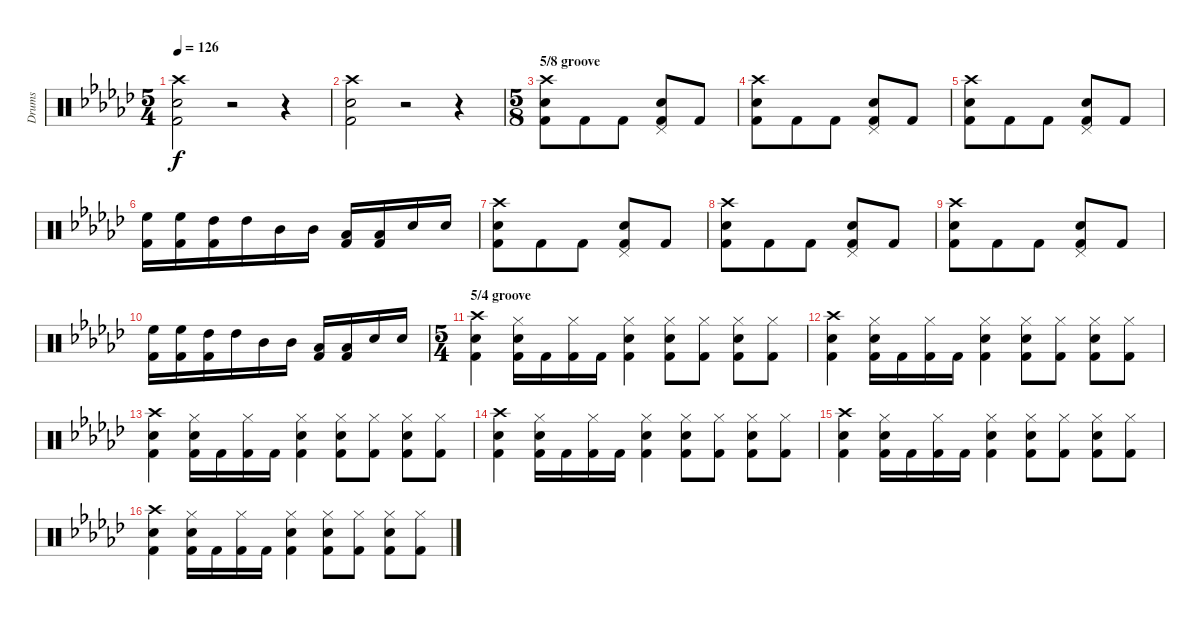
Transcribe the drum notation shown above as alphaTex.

\track ("Drums" "Drums") {instrument percussion}
\staff {score}
\articulation defaults
\ts (5 4)
\tempo 126
\clef neutral
\ks ebminor
("Crash high (hit)" "Electric Snare (hit)" "Kick (hit) 2").2{dy f} r.2 r.4 |
("Crash high (hit)" "Electric Snare (hit)" "Kick (hit) 2").2 r.2 r.4 |
\ts (5 8)
\section ("" "5/8 groove")
("Crash high (hit)" "Electric Snare (hit)" "Kick (hit) 2").8 "Kick (hit) 2".8 "Kick (hit) 2".8 ("Pedal Hi-Hat (hit)" "Electric Snare (hit)" "Kick (hit) 2").8 "Kick (hit) 2".8 |
("Crash high (hit)" "Electric Snare (hit)" "Kick (hit) 2").8 "Kick (hit) 2".8 "Kick (hit) 2".8 ("Pedal Hi-Hat (hit)" "Electric Snare (hit)" "Kick (hit) 2").8 "Kick (hit) 2".8 |
("Crash high (hit)" "Electric Snare (hit)" "Kick (hit) 2").8 "Kick (hit) 2".8 "Kick (hit) 2".8 ("Pedal Hi-Hat (hit)" "Electric Snare (hit)" "Kick (hit) 2").8 "Kick (hit) 2".8 |
("High Floor Tom (hit)" "Kick (hit) 2").16 ("High Floor Tom (hit)" "Kick (hit) 2").16 ("High Tom (hit)" "Kick (hit) 2").16 "High Tom (hit)".16 "Mid Tom (hit)".16 "Mid Tom (hit)".16 ("Low Tom (hit)" "Kick (hit) 2").16 ("Low Tom (hit)" "Kick (hit) 2").16 "Electric Snare (hit)".16 "Electric Snare (hit)".16 |
("Crash high (hit)" "Electric Snare (hit)" "Kick (hit) 2").8 "Kick (hit) 2".8 "Kick (hit) 2".8 ("Pedal Hi-Hat (hit)" "Electric Snare (hit)" "Kick (hit) 2").8 "Kick (hit) 2".8 |
("Crash high (hit)" "Electric Snare (hit)" "Kick (hit) 2").8 "Kick (hit) 2".8 "Kick (hit) 2".8 ("Pedal Hi-Hat (hit)" "Electric Snare (hit)" "Kick (hit) 2").8 "Kick (hit) 2".8 |
("Crash high (hit)" "Electric Snare (hit)" "Kick (hit) 2").8 "Kick (hit) 2".8 "Kick (hit) 2".8 ("Pedal Hi-Hat (hit)" "Electric Snare (hit)" "Kick (hit) 2").8 "Kick (hit) 2".8 |
("High Floor Tom (hit)" "Kick (hit) 2").16 ("High Floor Tom (hit)" "Kick (hit) 2").16 ("High Tom (hit)" "Kick (hit) 2").16 "High Tom (hit)".16 "Mid Tom (hit)".16 "Mid Tom (hit)".16 ("Low Tom (hit)" "Kick (hit) 2").16 ("Low Tom (hit)" "Kick (hit) 2").16 "Electric Snare (hit)".16 "Electric Snare (hit)".16 |
\ts (5 4)
\section ("" "5/4 groove")
("Crash high (hit)" "Electric Snare (hit)" "Kick (hit) 2").4 ("Hi-Hat (closed)" "Electric Snare (hit)" "Kick (hit) 2").16 "Kick (hit) 2".16 ("Hi-Hat (closed)" "Kick (hit) 2").16 "Kick (hit) 2".16 ("Hi-Hat (closed)" "Electric Snare (hit)" "Kick (hit) 2").4 ("Hi-Hat (closed)" "Electric Snare (hit)" "Kick (hit) 2").8 ("Hi-Hat (closed)" "Kick (hit) 2").8 ("Hi-Hat (closed)" "Electric Snare (hit)" "Kick (hit) 2").8 ("Hi-Hat (closed)" "Kick (hit) 2").8 |
("Crash high (hit)" "Electric Snare (hit)" "Kick (hit) 2").4 ("Hi-Hat (closed)" "Electric Snare (hit)" "Kick (hit) 2").16 "Kick (hit) 2".16 ("Hi-Hat (closed)" "Kick (hit) 2").16 "Kick (hit) 2".16 ("Hi-Hat (closed)" "Electric Snare (hit)" "Kick (hit) 2").4 ("Hi-Hat (closed)" "Electric Snare (hit)" "Kick (hit) 2").8 ("Hi-Hat (closed)" "Kick (hit) 2").8 ("Hi-Hat (closed)" "Electric Snare (hit)" "Kick (hit) 2").8 ("Hi-Hat (closed)" "Kick (hit) 2").8 |
("Crash high (hit)" "Electric Snare (hit)" "Kick (hit) 2").4 ("Hi-Hat (closed)" "Electric Snare (hit)" "Kick (hit) 2").16 "Kick (hit) 2".16 ("Hi-Hat (closed)" "Kick (hit) 2").16 "Kick (hit) 2".16 ("Hi-Hat (closed)" "Electric Snare (hit)" "Kick (hit) 2").4 ("Hi-Hat (closed)" "Electric Snare (hit)" "Kick (hit) 2").8 ("Hi-Hat (closed)" "Kick (hit) 2").8 ("Hi-Hat (closed)" "Electric Snare (hit)" "Kick (hit) 2").8 ("Hi-Hat (closed)" "Kick (hit) 2").8 |
("Crash high (hit)" "Electric Snare (hit)" "Kick (hit) 2").4 ("Hi-Hat (closed)" "Electric Snare (hit)" "Kick (hit) 2").16 "Kick (hit) 2".16 ("Hi-Hat (closed)" "Kick (hit) 2").16 "Kick (hit) 2".16 ("Hi-Hat (closed)" "Electric Snare (hit)" "Kick (hit) 2").4 ("Hi-Hat (closed)" "Electric Snare (hit)" "Kick (hit) 2").8 ("Hi-Hat (closed)" "Kick (hit) 2").8 ("Hi-Hat (closed)" "Electric Snare (hit)" "Kick (hit) 2").8 ("Hi-Hat (closed)" "Kick (hit) 2").8 |
("Crash high (hit)" "Electric Snare (hit)" "Kick (hit) 2").4 ("Hi-Hat (closed)" "Electric Snare (hit)" "Kick (hit) 2").16 "Kick (hit) 2".16 ("Hi-Hat (closed)" "Kick (hit) 2").16 "Kick (hit) 2".16 ("Hi-Hat (closed)" "Electric Snare (hit)" "Kick (hit) 2").4 ("Hi-Hat (closed)" "Electric Snare (hit)" "Kick (hit) 2").8 ("Hi-Hat (closed)" "Kick (hit) 2").8 ("Hi-Hat (closed)" "Electric Snare (hit)" "Kick (hit) 2").8 ("Hi-Hat (closed)" "Kick (hit) 2").8 |
("Crash high (hit)" "Electric Snare (hit)" "Kick (hit) 2").4 ("Hi-Hat (closed)" "Electric Snare (hit)" "Kick (hit) 2").16 "Kick (hit) 2".16 ("Hi-Hat (closed)" "Kick (hit) 2").16 "Kick (hit) 2".16 ("Hi-Hat (closed)" "Electric Snare (hit)" "Kick (hit) 2").4 ("Hi-Hat (closed)" "Electric Snare (hit)" "Kick (hit) 2").8 ("Hi-Hat (closed)" "Kick (hit) 2").8 ("Hi-Hat (closed)" "Electric Snare (hit)" "Kick (hit) 2").8 ("Hi-Hat (closed)" "Kick (hit) 2").8
